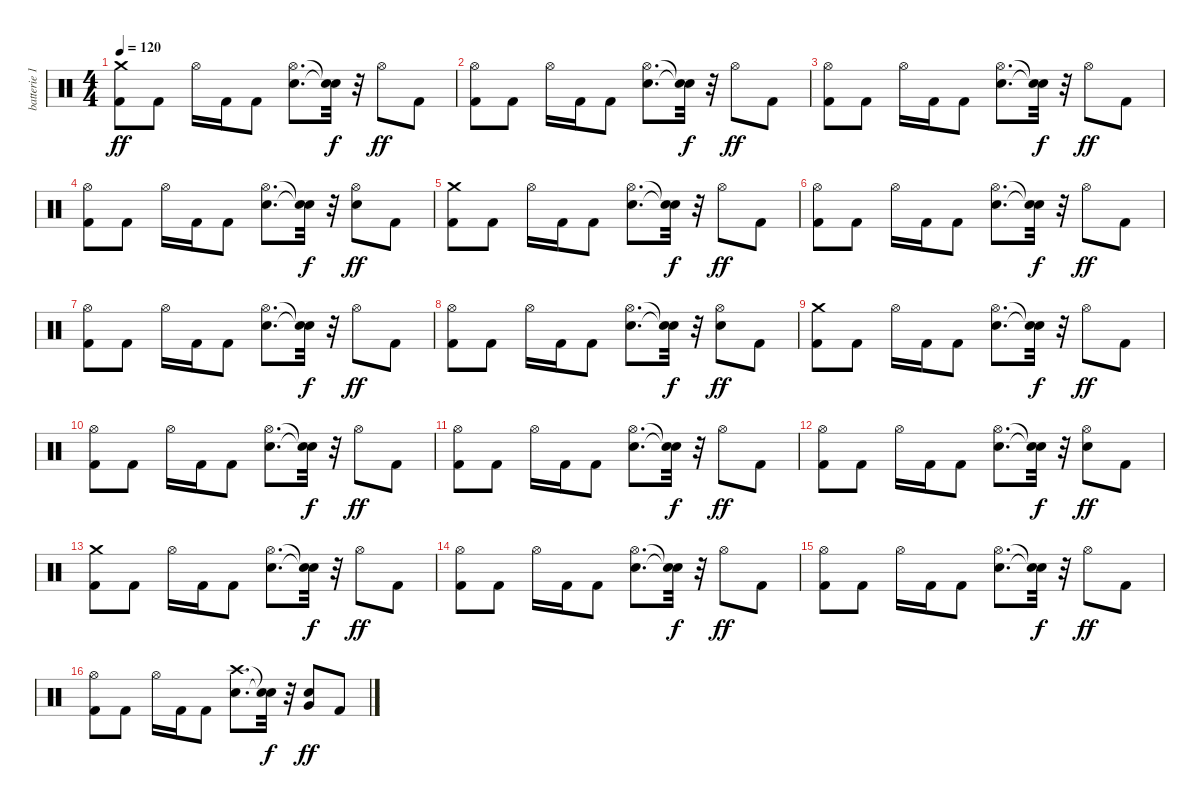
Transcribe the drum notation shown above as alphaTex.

\track ("batterie 1" "batterie 1") {instrument percussion}
\staff {score}
\articulation defaults
\ts (4 4)
\tempo 120
\clef neutral
\ks c
("Kick (hit) 2" "Crash medium (hit)").8{dy ff} "Kick (hit) 2".8 "Hi-Hat (open)".16 "Kick (hit) 2".16 "Kick (hit) 2".8 ("Electric Snare (hit)" "Hi-Hat (open)").8{d} ("Snare (hit)"{t} "Snare (hit)"{t}).32{dy f} r.32 "Hi-Hat (open)".8{dy ff} "Kick (hit) 2".8 |
("Kick (hit) 2" "Hi-Hat (open)").8 "Kick (hit) 2".8 "Hi-Hat (open)".16 "Kick (hit) 2".16 "Kick (hit) 2".8 ("Electric Snare (hit)" "Hi-Hat (open)").8{d} ("Snare (hit)"{t} "Snare (hit)"{t}).32{dy f} r.32 "Hi-Hat (open)".8{dy ff} "Kick (hit) 2".8 |
("Kick (hit) 2" "Hi-Hat (open)").8 "Kick (hit) 2".8 "Hi-Hat (open)".16 "Kick (hit) 2".16 "Kick (hit) 2".8 ("Electric Snare (hit)" "Hi-Hat (open)").8{d} ("Snare (hit)"{t} "Snare (hit)"{t}).32{dy f} r.32 "Hi-Hat (open)".8{dy ff} "Kick (hit) 2".8 |
("Kick (hit) 2" "Hi-Hat (open)").8 "Kick (hit) 2".8 "Hi-Hat (open)".16 "Kick (hit) 2".16 "Kick (hit) 2".8 ("Electric Snare (hit)" "Hi-Hat (open)").8{d} ("Snare (hit)"{t} "Snare (hit)"{t}).32{dy f} r.32 ("Electric Snare (hit)" "Hi-Hat (open)").8{dy ff} "Kick (hit) 2".8 |
("Kick (hit) 2" "Crash medium (hit)").8 "Kick (hit) 2".8 "Hi-Hat (open)".16 "Kick (hit) 2".16 "Kick (hit) 2".8 ("Electric Snare (hit)" "Hi-Hat (open)").8{d} ("Snare (hit)"{t} "Snare (hit)"{t}).32{dy f} r.32 "Hi-Hat (open)".8{dy ff} "Kick (hit) 2".8 |
("Kick (hit) 2" "Hi-Hat (open)").8 "Kick (hit) 2".8 "Hi-Hat (open)".16 "Kick (hit) 2".16 "Kick (hit) 2".8 ("Electric Snare (hit)" "Hi-Hat (open)").8{d} ("Snare (hit)"{t} "Snare (hit)"{t}).32{dy f} r.32 "Hi-Hat (open)".8{dy ff} "Kick (hit) 2".8 |
("Kick (hit) 2" "Hi-Hat (open)").8 "Kick (hit) 2".8 "Hi-Hat (open)".16 "Kick (hit) 2".16 "Kick (hit) 2".8 ("Electric Snare (hit)" "Hi-Hat (open)").8{d} ("Snare (hit)"{t} "Snare (hit)"{t}).32{dy f} r.32 "Hi-Hat (open)".8{dy ff} "Kick (hit) 2".8 |
("Kick (hit) 2" "Hi-Hat (open)").8 "Kick (hit) 2".8 "Hi-Hat (open)".16 "Kick (hit) 2".16 "Kick (hit) 2".8 ("Electric Snare (hit)" "Hi-Hat (open)").8{d} ("Snare (hit)"{t} "Snare (hit)"{t}).32{dy f} r.32 ("Electric Snare (hit)" "Hi-Hat (open)").8{dy ff} "Kick (hit) 2".8 |
("Kick (hit) 2" "Crash medium (hit)").8 "Kick (hit) 2".8 "Hi-Hat (open)".16 "Kick (hit) 2".16 "Kick (hit) 2".8 ("Electric Snare (hit)" "Hi-Hat (open)").8{d} ("Snare (hit)"{t} "Snare (hit)"{t}).32{dy f} r.32 "Hi-Hat (open)".8{dy ff} "Kick (hit) 2".8 |
("Kick (hit) 2" "Hi-Hat (open)").8 "Kick (hit) 2".8 "Hi-Hat (open)".16 "Kick (hit) 2".16 "Kick (hit) 2".8 ("Electric Snare (hit)" "Hi-Hat (open)").8{d} ("Snare (hit)"{t} "Snare (hit)"{t}).32{dy f} r.32 "Hi-Hat (open)".8{dy ff} "Kick (hit) 2".8 |
("Kick (hit) 2" "Hi-Hat (open)").8 "Kick (hit) 2".8 "Hi-Hat (open)".16 "Kick (hit) 2".16 "Kick (hit) 2".8 ("Electric Snare (hit)" "Hi-Hat (open)").8{d} ("Snare (hit)"{t} "Snare (hit)"{t}).32{dy f} r.32 "Hi-Hat (open)".8{dy ff} "Kick (hit) 2".8 |
("Kick (hit) 2" "Hi-Hat (open)").8 "Kick (hit) 2".8 "Hi-Hat (open)".16 "Kick (hit) 2".16 "Kick (hit) 2".8 ("Electric Snare (hit)" "Hi-Hat (open)").8{d} ("Snare (hit)"{t} "Snare (hit)"{t}).32{dy f} r.32 ("Electric Snare (hit)" "Hi-Hat (open)").8{dy ff} "Kick (hit) 2".8 |
("Kick (hit) 2" "Crash medium (hit)").8 "Kick (hit) 2".8 "Hi-Hat (open)".16 "Kick (hit) 2".16 "Kick (hit) 2".8 ("Electric Snare (hit)" "Hi-Hat (open)").8{d} ("Snare (hit)"{t} "Snare (hit)"{t}).32{dy f} r.32 "Hi-Hat (open)".8{dy ff} "Kick (hit) 2".8 |
("Kick (hit) 2" "Hi-Hat (open)").8 "Kick (hit) 2".8 "Hi-Hat (open)".16 "Kick (hit) 2".16 "Kick (hit) 2".8 ("Electric Snare (hit)" "Hi-Hat (open)").8{d} ("Snare (hit)"{t} "Snare (hit)"{t}).32{dy f} r.32 "Hi-Hat (open)".8{dy ff} "Kick (hit) 2".8 |
("Kick (hit) 2" "Hi-Hat (open)").8 "Kick (hit) 2".8 "Hi-Hat (open)".16 "Kick (hit) 2".16 "Kick (hit) 2".8 ("Electric Snare (hit)" "Hi-Hat (open)").8{d} ("Snare (hit)"{t} "Snare (hit)"{t}).32{dy f} r.32 "Hi-Hat (open)".8{dy ff} "Kick (hit) 2".8 |
("Kick (hit) 2" "Hi-Hat (open)").8 "Kick (hit) 2".8 "Hi-Hat (open)".16 "Kick (hit) 2".16 "Kick (hit) 2".8 ("Electric Snare (hit)" "Crash high (hit)").8{d} ("Snare (hit)"{t} "Snare (hit)"{t}).32{dy f} r.32 ("Electric Snare (hit)" "Very Low Tom (hit)").8{dy ff} "Kick (hit) 2".8
